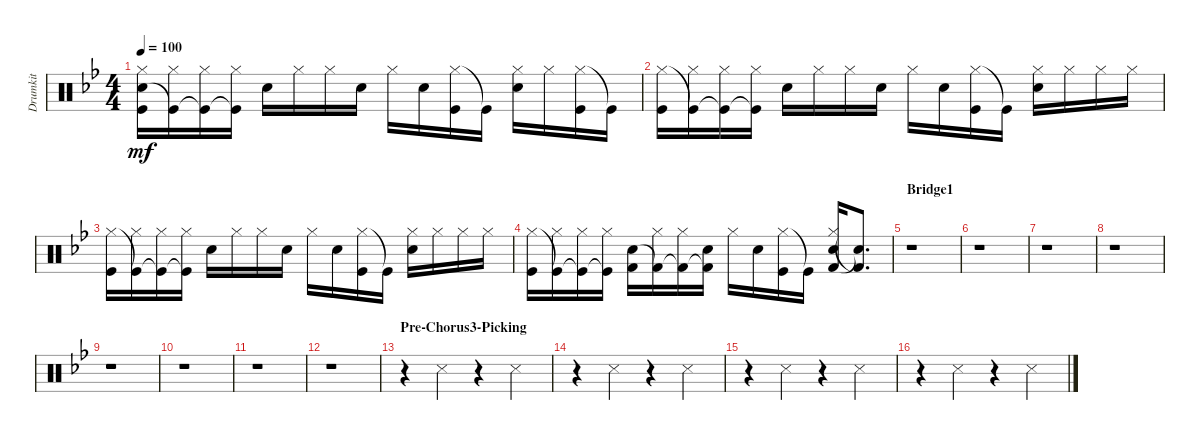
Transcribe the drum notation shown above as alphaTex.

\track ("Drumkit" "Drumkit") {instrument percussion}
\staff {score}
\articulation defaults
\ts (4 4)
\tempo 100
\clef neutral
\ks gminor
("Snare (hit) 2" "Hi-Hat (closed)" "Kick (hit)").16{dy mf} ("Kick (hit)"{t} "Hi-Hat (closed)").16 ("Kick (hit)"{t} "Hi-Hat (closed)").16 ("Kick (hit)"{t} "Hi-Hat (closed)").16 "Snare (hit) 2".16 "Hi-Hat (closed)".16 "Hi-Hat (closed)".16 "Electric Snare (hit)".16 "Hi-Hat (closed)".16 "Electric Snare (hit)".16 ("Hi-Hat (closed)" "Kick (hit)").16 "Kick (hit)"{t}.16 ("Hi-Hat (closed)" "Snare (hit) 2").16 "Hi-Hat (closed)".16 ("Hi-Hat (closed)" "Kick (hit)").16 "Kick (hit)"{t}.16 |
("Hi-Hat (closed)" "Kick (hit)").16 ("Kick (hit)"{t} "Hi-Hat (closed)").16 ("Kick (hit)"{t} "Hi-Hat (closed)").16 ("Kick (hit)"{t} "Hi-Hat (closed)").16 "Snare (hit) 2".16 "Hi-Hat (closed)".16 "Hi-Hat (closed)".16 "Electric Snare (hit)".16 "Hi-Hat (closed)".16 "Electric Snare (hit)".16 ("Hi-Hat (closed)" "Kick (hit)").16 "Kick (hit)"{t}.16 ("Hi-Hat (closed)" "Snare (hit) 2").16 "Hi-Hat (closed)".16 "Hi-Hat (closed)".16 "Hi-Hat (closed)".16 |
("Hi-Hat (closed)" "Kick (hit)").16 ("Kick (hit)"{t} "Hi-Hat (closed)").16 ("Kick (hit)"{t} "Hi-Hat (closed)").16 ("Kick (hit)"{t} "Hi-Hat (closed)").16 "Snare (hit) 2".16 "Hi-Hat (closed)".16 "Hi-Hat (closed)".16 "Electric Snare (hit)".16 "Hi-Hat (closed)".16 "Electric Snare (hit)".16 ("Hi-Hat (closed)" "Kick (hit)").16 "Kick (hit)"{t}.16 ("Hi-Hat (closed)" "Snare (hit) 2").16 "Hi-Hat (closed)".16 "Hi-Hat (closed)".16 "Hi-Hat (closed)".16 |
("Hi-Hat (closed)" "Kick (hit)").16 ("Kick (hit)"{t} "Hi-Hat (closed)").16 ("Kick (hit)"{t} "Hi-Hat (closed)").16 ("Kick (hit)"{t} "Hi-Hat (closed)").16 ("Snare (hit) 2" "Kick (hit) 2").16 ("Kick (hit) 2"{t} "Hi-Hat (closed)").16 ("Kick (hit) 2"{t} "Hi-Hat (closed)").16 ("Kick (hit) 2"{t} "Electric Snare (hit)").16 "Hi-Hat (closed)".16 "Electric Snare (hit)".16 ("Hi-Hat (closed)" "Kick (hit)").16 "Kick (hit)"{t}.16 ("Hi-Hat (closed)" "Kick (hit) 2" "Snare (hit) 2").16 ("Kick (hit) 2"{t} "Snare (hit) 2"{t}).8{d} |
\section ("" "Bridge1")
r.1 |
r.1 |
r.1 |
r.1 |
r.1 |
r.1 |
r.1 |
r.1 |
\section ("" "Pre-Chorus3-Picking")
r.4 "Snare (side stick) 3".4 r.4 "Snare (side stick) 3".4 |
r.4 "Snare (side stick) 3".4 r.4 "Snare (side stick) 3".4 |
r.4 "Snare (side stick) 3".4 r.4 "Snare (side stick) 3".4 |
r.4 "Snare (side stick) 3".4 r.4 "Snare (side stick) 3".4
